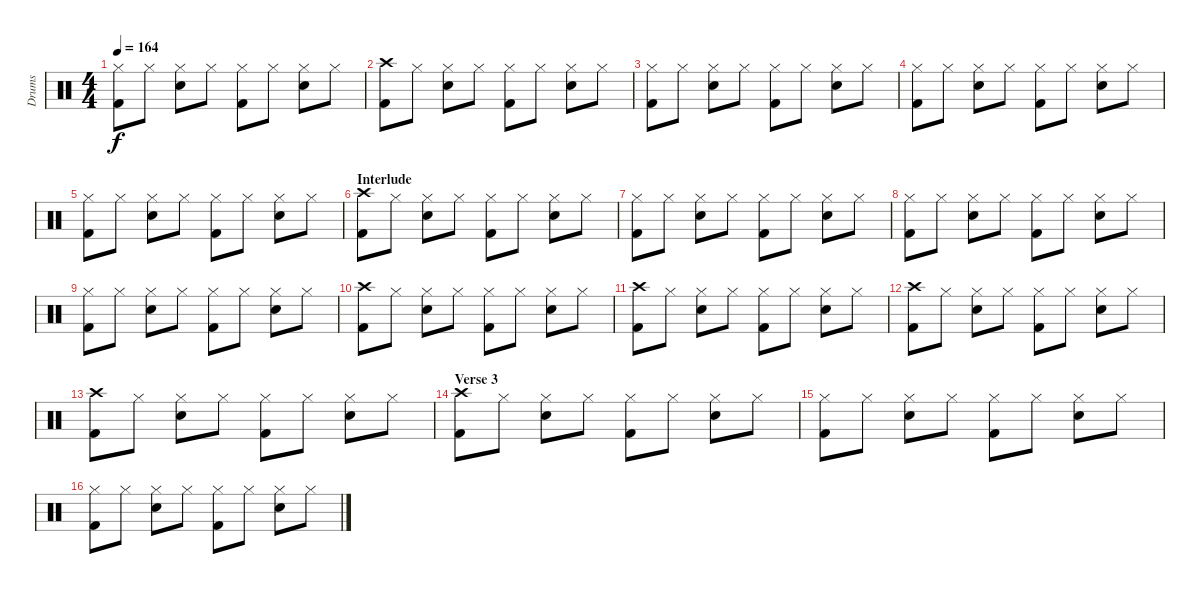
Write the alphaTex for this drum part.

\track ("Drums" "Drums") {instrument percussion}
\staff {score}
\articulation defaults
\ts (4 4)
\tempo 164
\clef neutral
\ks c
("Hi-Hat (closed)" "Kick (hit) 2").8{dy f} "Hi-Hat (closed)".8 ("Hi-Hat (closed)" "Snare (hit) 2").8 "Hi-Hat (closed)".8 ("Hi-Hat (closed)" "Kick (hit) 2").8 "Hi-Hat (closed)".8 ("Hi-Hat (closed)" "Snare (hit) 2").8 "Hi-Hat (closed)".8 |
("Crash high (hit)" "Kick (hit) 2").8 "Hi-Hat (closed)".8 ("Hi-Hat (closed)" "Snare (hit) 2").8 "Hi-Hat (closed)".8 ("Hi-Hat (closed)" "Kick (hit) 2").8 "Hi-Hat (closed)".8 ("Hi-Hat (closed)" "Snare (hit) 2").8 "Hi-Hat (closed)".8 |
("Hi-Hat (closed)" "Kick (hit) 2").8 "Hi-Hat (closed)".8 ("Hi-Hat (closed)" "Snare (hit) 2").8 "Hi-Hat (closed)".8 ("Hi-Hat (closed)" "Kick (hit) 2").8 "Hi-Hat (closed)".8 ("Hi-Hat (closed)" "Snare (hit) 2").8 "Hi-Hat (closed)".8 |
("Hi-Hat (closed)" "Kick (hit) 2").8 "Hi-Hat (closed)".8 ("Hi-Hat (closed)" "Snare (hit) 2").8 "Hi-Hat (closed)".8 ("Hi-Hat (closed)" "Kick (hit) 2").8 "Hi-Hat (closed)".8 ("Hi-Hat (closed)" "Snare (hit) 2").8 "Hi-Hat (closed)".8 |
("Hi-Hat (closed)" "Kick (hit) 2").8 "Hi-Hat (closed)".8 ("Hi-Hat (closed)" "Snare (hit) 2").8 "Hi-Hat (closed)".8 ("Hi-Hat (closed)" "Kick (hit) 2").8 "Hi-Hat (closed)".8 ("Hi-Hat (closed)" "Snare (hit) 2").8 "Hi-Hat (closed)".8 |
\section ("" "Interlude")
("Crash high (hit)" "Kick (hit) 2").8 "Hi-Hat (closed)".8 ("Hi-Hat (closed)" "Snare (hit) 2").8 "Hi-Hat (closed)".8 ("Hi-Hat (closed)" "Kick (hit) 2").8 "Hi-Hat (closed)".8 ("Hi-Hat (closed)" "Snare (hit) 2").8 "Hi-Hat (closed)".8 |
("Hi-Hat (closed)" "Kick (hit) 2").8 "Hi-Hat (closed)".8 ("Hi-Hat (closed)" "Snare (hit) 2").8 "Hi-Hat (closed)".8 ("Hi-Hat (closed)" "Kick (hit) 2").8 "Hi-Hat (closed)".8 ("Hi-Hat (closed)" "Snare (hit) 2").8 "Hi-Hat (closed)".8 |
("Hi-Hat (closed)" "Kick (hit) 2").8 "Hi-Hat (closed)".8 ("Hi-Hat (closed)" "Snare (hit) 2").8 "Hi-Hat (closed)".8 ("Hi-Hat (closed)" "Kick (hit) 2").8 "Hi-Hat (closed)".8 ("Hi-Hat (closed)" "Snare (hit) 2").8 "Hi-Hat (closed)".8 |
("Hi-Hat (closed)" "Kick (hit) 2").8 "Hi-Hat (closed)".8 ("Hi-Hat (closed)" "Snare (hit) 2").8 "Hi-Hat (closed)".8 ("Hi-Hat (closed)" "Kick (hit) 2").8 "Hi-Hat (closed)".8 ("Hi-Hat (closed)" "Snare (hit) 2").8 "Hi-Hat (closed)".8 |
("Crash high (hit)" "Kick (hit) 2").8 "Hi-Hat (closed)".8 ("Hi-Hat (closed)" "Snare (hit) 2").8 "Hi-Hat (closed)".8 ("Hi-Hat (closed)" "Kick (hit) 2").8 "Hi-Hat (closed)".8 ("Hi-Hat (closed)" "Snare (hit) 2").8 "Hi-Hat (closed)".8 |
("Crash high (hit)" "Kick (hit) 2").8 "Hi-Hat (closed)".8 ("Hi-Hat (closed)" "Snare (hit) 2").8 "Hi-Hat (closed)".8 ("Hi-Hat (closed)" "Kick (hit) 2").8 "Hi-Hat (closed)".8 ("Hi-Hat (closed)" "Snare (hit) 2").8 "Hi-Hat (closed)".8 |
("Crash high (hit)" "Kick (hit) 2").8 "Hi-Hat (closed)".8 ("Hi-Hat (closed)" "Snare (hit) 2").8 "Hi-Hat (closed)".8 ("Hi-Hat (closed)" "Kick (hit) 2").8 "Hi-Hat (closed)".8 ("Hi-Hat (closed)" "Snare (hit) 2").8 "Hi-Hat (closed)".8 |
("Crash high (hit)" "Kick (hit) 2").8 "Hi-Hat (closed)".8 ("Hi-Hat (closed)" "Snare (hit) 2").8 "Hi-Hat (closed)".8 ("Hi-Hat (closed)" "Kick (hit) 2").8 "Hi-Hat (closed)".8 ("Hi-Hat (closed)" "Snare (hit) 2").8 "Hi-Hat (closed)".8 |
\section ("" "Verse 3")
("Crash high (hit)" "Kick (hit) 2").8 "Hi-Hat (closed)".8 ("Hi-Hat (closed)" "Snare (hit) 2").8 "Hi-Hat (closed)".8 ("Hi-Hat (closed)" "Kick (hit) 2").8 "Hi-Hat (closed)".8 ("Hi-Hat (closed)" "Snare (hit) 2").8 "Hi-Hat (closed)".8 |
("Hi-Hat (closed)" "Kick (hit) 2").8 "Hi-Hat (closed)".8 ("Hi-Hat (closed)" "Snare (hit) 2").8 "Hi-Hat (closed)".8 ("Hi-Hat (closed)" "Kick (hit) 2").8 "Hi-Hat (closed)".8 ("Hi-Hat (closed)" "Snare (hit) 2").8 "Hi-Hat (closed)".8 |
("Hi-Hat (closed)" "Kick (hit) 2").8 "Hi-Hat (closed)".8 ("Hi-Hat (closed)" "Snare (hit) 2").8 "Hi-Hat (closed)".8 ("Hi-Hat (closed)" "Kick (hit) 2").8 "Hi-Hat (closed)".8 ("Hi-Hat (closed)" "Snare (hit) 2").8 "Hi-Hat (closed)".8
